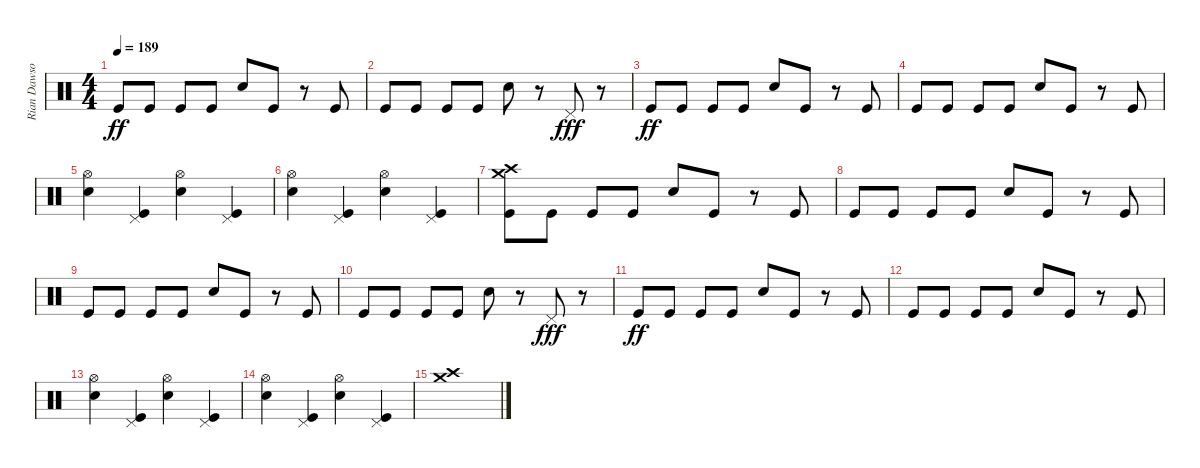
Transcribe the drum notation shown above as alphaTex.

\track ("Rian Dawson" "Rian Dawso") {instrument percussion}
\staff {score}
\articulation defaults
\ts (4 4)
\tempo 189
\clef neutral
\ks c "Kick (hit)".8{dy ff} "Kick (hit)".8 "Kick (hit)".8 "Kick (hit)".8 "Snare (hit) 2".8 "Kick (hit)".8
r.8 "Kick (hit)".8 |
"Kick (hit)".8 "Kick (hit)".8 "Kick (hit)".8 "Kick (hit)".8 "Snare (hit) 2".8 r.8 "Pedal Hi-Hat (hit)".8{dy fff} r.8 |
"Kick (hit)".8{dy ff} "Kick (hit)".8 "Kick (hit)".8 "Kick (hit)".8 "Snare (hit) 2".8 "Kick (hit)".8 r.8 "Kick (hit)".8 |
"Kick (hit)".8 "Kick (hit)".8 "Kick (hit)".8 "Kick (hit)".8 "Snare (hit) 2".8 "Kick (hit)".8 r.8 "Kick (hit)".8 |
("Hi-Hat (open)" "Snare (hit) 2").4 ("Pedal Hi-Hat (hit)" "Kick (hit)").4 ("Hi-Hat (open)" "Snare (hit) 2").4 ("Pedal Hi-Hat (hit)" "Kick (hit)").4 |
("Hi-Hat (open)" "Snare (hit) 2").4 ("Pedal Hi-Hat (hit)" "Kick (hit)").4 ("Hi-Hat (open)" "Snare (hit) 2").4 ("Pedal Hi-Hat (hit)" "Kick (hit)").4 |
("Crash high (hit)" "Crash medium (hit)" "Kick (hit)").8 "Kick (hit)".8 "Kick (hit)".8 "Kick (hit)".8 "Snare (hit) 2".8 "Kick (hit)".8 r.8 "Kick (hit)".8 |
"Kick (hit)".8 "Kick (hit)".8 "Kick (hit)".8 "Kick (hit)".8 "Snare (hit) 2".8 "Kick (hit)".8 r.8 "Kick (hit)".8 |
"Kick (hit)".8 "Kick (hit)".8 "Kick (hit)".8 "Kick (hit)".8 "Snare (hit) 2".8 "Kick (hit)".8 r.8 "Kick (hit)".8 |
"Kick (hit)".8 "Kick (hit)".8 "Kick (hit)".8 "Kick (hit)".8 "Snare (hit) 2".8 r.8 "Pedal Hi-Hat (hit)".8{dy fff} r.8 |
"Kick (hit)".8{dy ff} "Kick (hit)".8 "Kick (hit)".8 "Kick (hit)".8 "Snare (hit) 2".8 "Kick (hit)".8 r.8 "Kick (hit)".8 |
"Kick (hit)".8 "Kick (hit)".8 "Kick (hit)".8 "Kick (hit)".8 "Snare (hit) 2".8 "Kick (hit)".8 r.8 "Kick (hit)".8 |
("Hi-Hat (open)" "Snare (hit) 2").4 ("Pedal Hi-Hat (hit)" "Kick (hit)").4 ("Hi-Hat (open)" "Snare (hit) 2").4 ("Pedal Hi-Hat (hit)" "Kick (hit)").4 |
("Hi-Hat (open)" "Snare (hit) 2").4 ("Pedal Hi-Hat (hit)" "Kick (hit)").4 ("Hi-Hat (open)" "Snare (hit) 2").4 ("Pedal Hi-Hat (hit)" "Kick (hit)").4 |
("Crash high (hit)" "Crash medium (hit)").1
